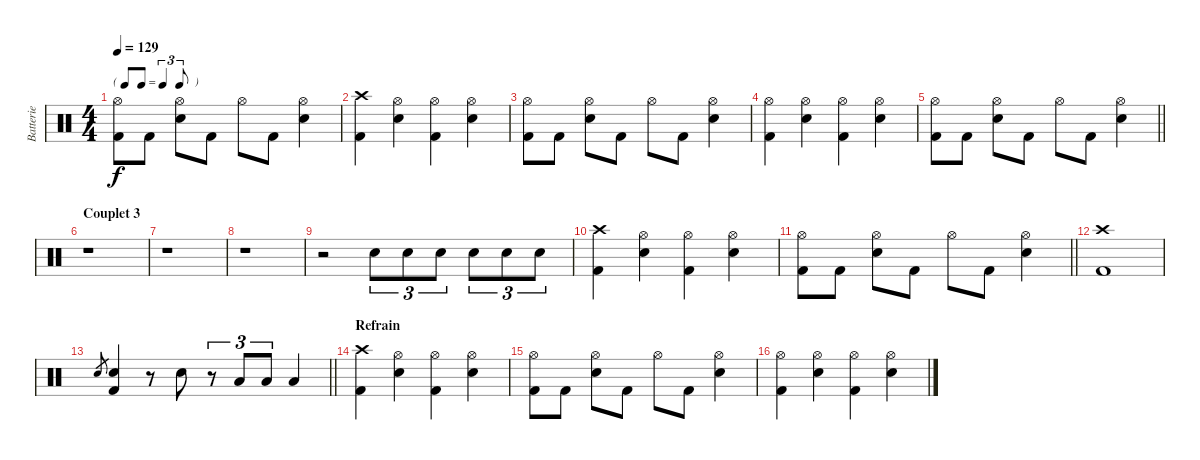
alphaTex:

\track ("Batterie" "Batterie") {instrument percussion}
\staff {score}
\articulation defaults
\ts (4 4)
\tf triplet8th
\tempo 129
\clef neutral
\ks c
("Hi-Hat (open)" "Kick (hit) 2").8{dy f} "Kick (hit) 2".8 ("Hi-Hat (open)" "Snare (hit) 2").8 "Kick (hit) 2".8 "Hi-Hat (open)".8 "Kick (hit) 2".8 ("Hi-Hat (open)" "Snare (hit) 2").4 |
("Crash high (hit)" "Kick (hit) 2").4 ("Hi-Hat (open)" "Snare (hit) 2").4 ("Hi-Hat (open)" "Kick (hit) 2").4 ("Hi-Hat (open)" "Snare (hit) 2").4 |
("Hi-Hat (open)" "Kick (hit) 2").8 "Kick (hit) 2".8 ("Hi-Hat (open)" "Snare (hit) 2").8 "Kick (hit) 2".8 "Hi-Hat (open)".8 "Kick (hit) 2".8 ("Hi-Hat (open)" "Snare (hit) 2").4 |
("Hi-Hat (open)" "Kick (hit) 2").4 ("Hi-Hat (open)" "Snare (hit) 2").4 ("Hi-Hat (open)" "Kick (hit) 2").4 ("Hi-Hat (open)" "Snare (hit) 2").4 |
\barLineRight lightlight
("Hi-Hat (open)" "Kick (hit) 2").8 "Kick (hit) 2".8 ("Hi-Hat (open)" "Snare (hit) 2").8 "Kick (hit) 2".8 "Hi-Hat (open)".8 "Kick (hit) 2".8 ("Hi-Hat (open)" "Snare (hit) 2").4 |
\section ("" "Couplet 3")
r.1 |
r.1 |
r.1 |
r.2 "Snare (hit) 2".8{tu (3 2)} "Snare (hit) 2".8{tu (3 2)} "Snare (hit) 2".8{tu (3 2)} "Snare (hit) 2".8{tu (3 2)} "Snare (hit) 2".8{tu (3 2)} "Snare (hit) 2".8{tu (3 2)} |
("Crash high (hit)" "Kick (hit) 2").4 ("Hi-Hat (open)" "Snare (hit) 2").4 ("Hi-Hat (open)" "Kick (hit) 2").4 ("Hi-Hat (open)" "Snare (hit) 2").4 |
\barLineRight lightlight
("Hi-Hat (open)" "Kick (hit) 2").8 "Kick (hit) 2".8 ("Hi-Hat (open)" "Snare (hit) 2").8 "Kick (hit) 2".8 "Hi-Hat (open)".8 "Kick (hit) 2".8 ("Hi-Hat (open)" "Snare (hit) 2").4 |
("Crash high (hit)" "Kick (hit) 2").1 |
\barLineRight lightlight "Snare (hit) 2"{h}.8{gr}
("Snare (hit) 2" "Kick (hit) 2").4 r.8 "Snare (hit) 2".8 r.8{tu (3 2)} "Low Tom (hit)".8{tu (3 2)} "Low Tom (hit)".8{tu (3 2)} "Low Tom (hit)".4 |
\section ("" "Refrain")
("Crash high (hit)" "Kick (hit) 2").4 ("Hi-Hat (open)" "Snare (hit) 2").4 ("Hi-Hat (open)" "Kick (hit) 2").4 ("Hi-Hat (open)" "Snare (hit) 2").4 |
("Hi-Hat (open)" "Kick (hit) 2").8 "Kick (hit) 2".8 ("Hi-Hat (open)" "Snare (hit) 2").8 "Kick (hit) 2".8 "Hi-Hat (open)".8 "Kick (hit) 2".8 ("Hi-Hat (open)" "Snare (hit) 2").4 |
("Hi-Hat (open)" "Kick (hit) 2").4 ("Hi-Hat (open)" "Snare (hit) 2").4 ("Hi-Hat (open)" "Kick (hit) 2").4 ("Hi-Hat (open)" "Snare (hit) 2").4
